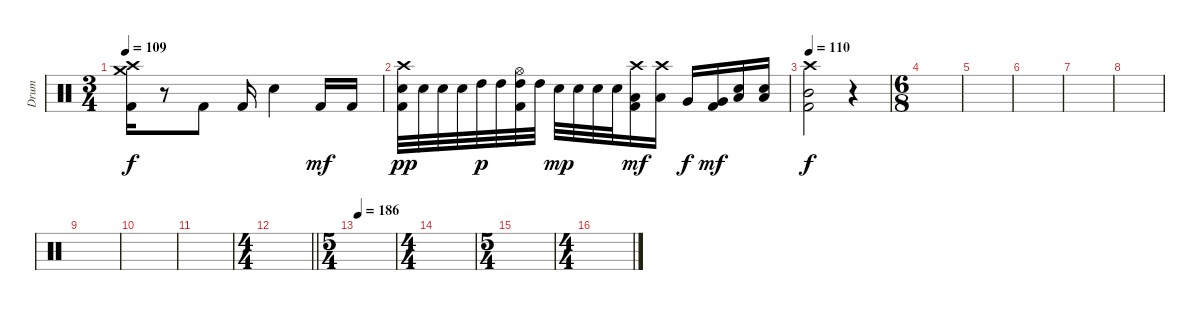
\track ("Drum" "Drum") {instrument percussion}
\staff {score}
\articulation defaults
\ts (3 4)
\tempo 109
\clef neutral
\ks c
("Crash high (hit)" "Crash medium (hit)" "Kick (hit) 2").16{dy f} r.8 "Kick (hit) 2".8 "Kick (hit) 2".16 "Snare (hit) 2".4 "Kick (hit) 2".16{dy mf} "Kick (hit) 2".16 |
("Crash high (hit)" "Snare (hit) 2" "Kick (hit) 2").32{dy pp} "Snare (hit) 2".32 "Snare (hit) 2".32 "Snare (hit) 2".32 "High Tom (hit)".32{dy p} "High Tom (hit)".32 ("Hi-Hat (open)" "High Tom (hit)" "Kick (hit) 2").32 "High Tom (hit)".32 "Snare (hit) 2".32{dy mp} "Snare (hit) 2".32 "Snare (hit) 2".32 "Snare (hit) 2".32 ("Crash high (hit)" "Low Tom (hit)" "Kick (hit) 2").16{dy mf} ("Crash high (hit)" "Low Tom (hit)").16 "Very Low Tom (hit)".16{dy f} ("Very Low Tom (hit)" "Kick (hit) 2").16{dy mf} ("Low Floor Tom (hit)" "Snare (hit) 2").16 ("Low Floor Tom (hit)" "Snare (hit) 2").16 |
\tempo 110
("Crash high (hit)" "Mid Tom (hit)" "Kick (hit) 2").2{dy f} r.4 |
\ts (6 8)
|
|
|
|
|
|
|
|
\ts (4 4)
\barLineRight lightlight
|
\ts (5 4)
\tempo 186
|
\ts (4 4)
|
\ts (5 4)
|
\ts (4 4)
